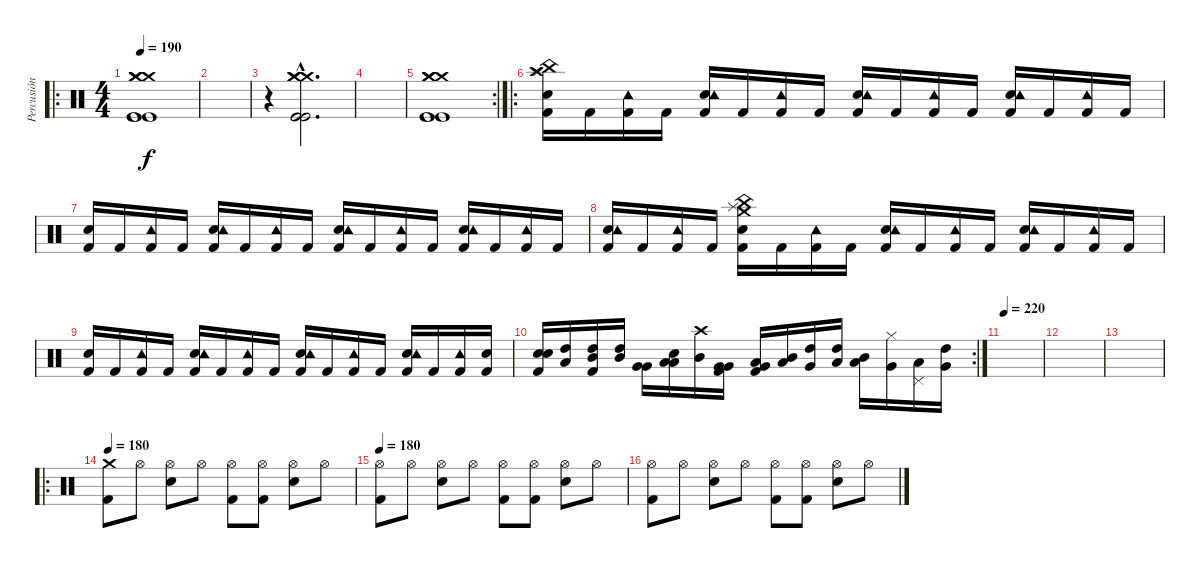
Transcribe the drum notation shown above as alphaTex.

\track ("Percusión" "Percusión") {instrument percussion}
\staff {score}
\articulation defaults
\ro
\ts (4 4)
\tempo 190
\clef neutral
\ks c
("Crash medium (hit)" "Crash medium (hit)" "Crash medium (hit)" "Kick (hit)" "Kick (hit)" "Kick (hit)").1{dy f} |
|
r.4 ("Crash medium (hit)"{hac} "Crash medium (hit)"{hac} "Crash medium (hit)"{hac} "Kick (hit)"{hac} "Kick (hit)"{hac} "Kick (hit)"{hac}).2{d} |
|
\rc 2
("Crash medium (hit)" "Crash medium (hit)" "Crash medium (hit)" "Kick (hit)" "Kick (hit)" "Kick (hit)").1 |
\ro
("Kick (hit) 2" "Snare (hit) 2" "Crash high (hit)" "Splash (hit)" "China (hit)").16 "Kick (hit) 2".16 ("Kick (hit) 2" "Tambourine (hit)").16 "Kick (hit) 2".16 ("Kick (hit) 2" "Snare (hit) 2" "Tambourine (hit)").16 "Kick (hit) 2".16 ("Kick (hit) 2" "Tambourine (hit)").16 "Kick (hit) 2".16 ("Kick (hit) 2" "Snare (hit) 2" "Tambourine (hit)").16 "Kick (hit) 2".16 ("Kick (hit) 2" "Tambourine (hit)").16 "Kick (hit) 2".16 ("Kick (hit) 2" "Snare (hit) 2" "Tambourine (hit)").16 "Kick (hit) 2".16 ("Kick (hit) 2" "Tambourine (hit)").16 "Kick (hit) 2".16 |
("Kick (hit) 2" "Snare (hit) 2").16 "Kick (hit) 2".16 ("Kick (hit) 2" "Tambourine (hit)").16 "Kick (hit) 2".16 ("Kick (hit) 2" "Snare (hit) 2" "Tambourine (hit)").16 "Kick (hit) 2".16 ("Kick (hit) 2" "Tambourine (hit)").16 "Kick (hit) 2".16 ("Kick (hit) 2" "Snare (hit) 2" "Tambourine (hit)").16 "Kick (hit) 2".16 ("Kick (hit) 2" "Tambourine (hit)").16 "Kick (hit) 2".16 ("Kick (hit) 2" "Snare (hit) 2" "Tambourine (hit)").16 "Kick (hit) 2".16 ("Kick (hit) 2" "Tambourine (hit)").16 "Kick (hit) 2".16 |
("Kick (hit) 2" "Snare (hit) 2" "Tambourine (hit)").16 "Kick (hit) 2".16 ("Kick (hit) 2" "Tambourine (hit)").16 "Kick (hit) 2".16 ("Kick (hit) 2" "Snare (hit) 2" "Crash medium (hit)" "Splash (hit)" "China (hit)").16 "Kick (hit) 2".16 ("Kick (hit) 2" "Tambourine (hit)").16 "Kick (hit) 2".16 ("Kick (hit) 2" "Snare (hit) 2" "Tambourine (hit)").16 "Kick (hit) 2".16 ("Kick (hit) 2" "Tambourine (hit)").16 "Kick (hit) 2".16 ("Kick (hit) 2" "Snare (hit) 2" "Tambourine (hit)").16 "Kick (hit) 2".16 ("Kick (hit) 2" "Tambourine (hit)").16 "Kick (hit) 2".16 |
("Kick (hit) 2" "Snare (hit) 2").16 "Kick (hit) 2".16 ("Kick (hit) 2" "Tambourine (hit)").16 "Kick (hit) 2".16 ("Kick (hit) 2" "Snare (hit) 2" "Tambourine (hit)").16 "Kick (hit) 2".16 ("Kick (hit) 2" "Tambourine (hit)").16 "Kick (hit) 2".16 ("Kick (hit) 2" "Snare (hit) 2" "Tambourine (hit)").16 "Kick (hit) 2".16 ("Kick (hit) 2" "Tambourine (hit)").16 "Kick (hit) 2".16 ("Kick (hit) 2" "Snare (hit) 2" "Tambourine (hit)").16 "Kick (hit) 2".16 ("Kick (hit) 2" "Tambourine (hit)").16 ("Kick (hit) 2" "Snare (hit) 2").16 |
\rc 2
("Kick (hit) 2" "Snare (hit) 2" "Snare (hit) 2").16 ("Low Floor Tom (hit)" "High Tom (hit)").16 ("Kick (hit) 2" "Mid Tom (hit)" "High Tom (hit)").16 ("Mid Tom (hit)" "High Tom (hit)").16 ("Very Low Tom (hit)" "Very Low Tom (hit)").16 ("Snare (hit) 2" "Low Floor Tom (hit)" "Low Floor Tom (hit)").16 ("Mid Tom (hit)" "Crash high (hit)").16 ("Kick (hit) 2" "Very Low Tom (hit)" "Very Low Tom (hit)").16 ("Kick (hit) 2" "Low Tom (hit)" "Very Low Tom (hit)").16 ("Mid Tom (hit)" "Low Tom (hit)").16 ("High Tom (hit)" "Very Low Tom (hit)").16 ("High Tom (hit)" "Low Tom (hit)").16 ("Low Tom (hit)" "Mid Tom (hit)").16 ("Very Low Tom (hit)" "Hi-Hat (closed)").16 ("Pedal Hi-Hat (hit)" "Low Tom (hit)").16 ("Very Low Tom (hit)" "High Tom (hit)").16 |
\tempo 220
|
|
|
\ro
\tempo 180
("Crash medium (hit)" "Kick (hit) 2").8 "Hi-Hat (open)".8 ("Hi-Hat (open)" "Snare (hit) 2").8 "Hi-Hat (open)".8 ("Hi-Hat (open)" "Kick (hit) 2").8 ("Hi-Hat (open)" "Kick (hit) 2").8 ("Hi-Hat (open)" "Snare (hit) 2").8 "Hi-Hat (open)".8 |
\tempo 180
("Hi-Hat (open)" "Kick (hit) 2").8 "Hi-Hat (open)".8 ("Hi-Hat (open)" "Snare (hit) 2").8 "Hi-Hat (open)".8 ("Hi-Hat (open)" "Kick (hit) 2").8 ("Hi-Hat (open)" "Kick (hit) 2").8 ("Hi-Hat (open)" "Snare (hit) 2").8 "Hi-Hat (open)".8 |
("Hi-Hat (open)" "Kick (hit) 2").8 "Hi-Hat (open)".8 ("Hi-Hat (open)" "Snare (hit) 2").8 "Hi-Hat (open)".8 ("Hi-Hat (open)" "Kick (hit) 2").8 ("Hi-Hat (open)" "Kick (hit) 2").8 ("Hi-Hat (open)" "Snare (hit) 2").8 "Hi-Hat (open)".8
